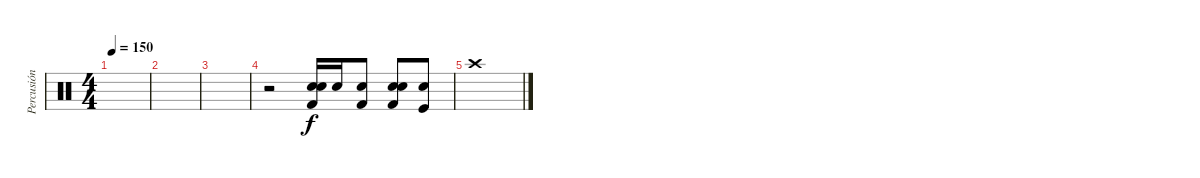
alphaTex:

\track ("Percusión" "Percusión") {instrument percussion}
\staff {score}
\articulation defaults
\ts (4 4)
\tempo 150
\clef neutral
\ks c
|
|
|
r.2 ("Snare (hit) 2" "Electric Snare (hit)" "Kick (hit) 2").16 "Snare (hit) 2".16 ("Snare (hit) 2" "Kick (hit) 2").8 ("Snare (hit) 2" "Electric Snare (hit)" "Kick (hit) 2").8 ("Snare (hit) 2" "Kick (hit)").8 |
"Crash high (hit)".1
